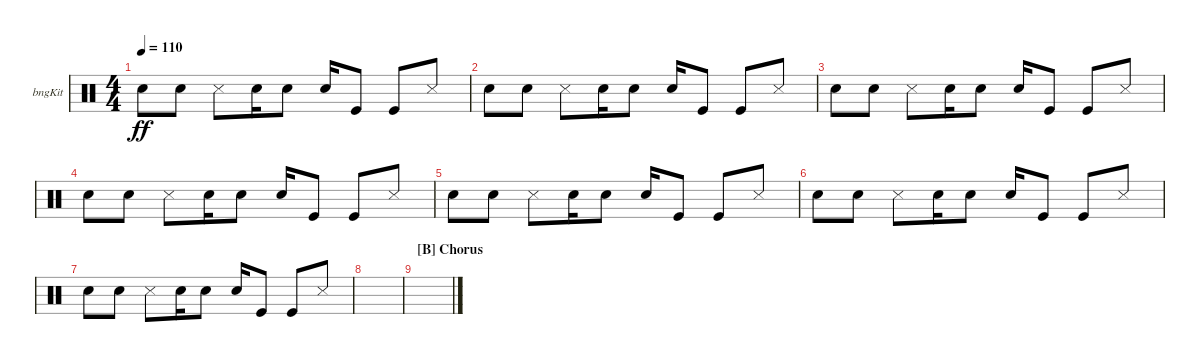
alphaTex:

\defaultSystemsLayout 4
\bracketExtendMode groupsimilarinstruments
\firstSystemTrackNameOrientation horizontal
\otherSystemsTrackNameOrientation horizontal
\track ("Bongos" "bngKit") {instrument percussion}
\staff {score}
\articulation defaults
\ts (4 4)
\tempo 110
\clef neutral
\ks c "Snare (hit) 2".8{dy ff} "Snare (hit) 2".8 "Snare (side stick) 3".8 "Snare (hit) 2".16 "Snare (hit) 2".8 "Snare (hit) 2".16 "Kick (hit)".8 "Kick (hit)".8 "Snare (side stick) 3".8
|
"Snare (hit) 2".8 "Snare (hit) 2".8 "Snare (side stick) 3".8 "Snare (hit) 2".16 "Snare (hit) 2".8 "Snare (hit) 2".16 "Kick (hit)".8 "Kick (hit)".8 "Snare (side stick) 3".8 |
"Snare (hit) 2".8 "Snare (hit) 2".8 "Snare (side stick) 3".8 "Snare (hit) 2".16 "Snare (hit) 2".8 "Snare (hit) 2".16 "Kick (hit)".8 "Kick (hit)".8 "Snare (side stick) 3".8 |
"Snare (hit) 2".8 "Snare (hit) 2".8 "Snare (side stick) 3".8 "Snare (hit) 2".16 "Snare (hit) 2".8 "Snare (hit) 2".16 "Kick (hit)".8 "Kick (hit)".8 "Snare (side stick) 3".8 |
"Snare (hit) 2".8 "Snare (hit) 2".8 "Snare (side stick) 3".8 "Snare (hit) 2".16 "Snare (hit) 2".8 "Snare (hit) 2".16 "Kick (hit)".8 "Kick (hit)".8 "Snare (side stick) 3".8 |
"Snare (hit) 2".8 "Snare (hit) 2".8 "Snare (side stick) 3".8 "Snare (hit) 2".16 "Snare (hit) 2".8 "Snare (hit) 2".16 "Kick (hit)".8 "Kick (hit)".8 "Snare (side stick) 3".8 |
"Snare (hit) 2".8 "Snare (hit) 2".8 "Snare (side stick) 3".8 "Snare (hit) 2".16 "Snare (hit) 2".8 "Snare (hit) 2".16 "Kick (hit)".8 "Kick (hit)".8 "Snare (side stick) 3".8 |
|
\section ("B" "Chorus")
